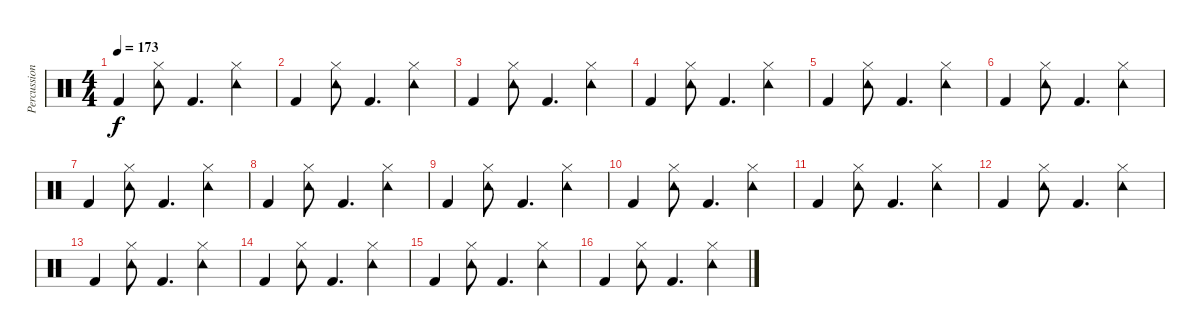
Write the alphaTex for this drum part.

\track ("Percussion" "Percussion") {instrument percussion}
\staff {score}
\articulation defaults
\ts (4 4)
\tempo 173
\clef neutral
\ks c "Kick (hit) 2".4{dy f}
("Tambourine (hit)" "Hi-Hat (closed)").8 "Kick (hit) 2".4{d} ("Tambourine (hit)" "Hi-Hat (closed)").4 |
"Kick (hit) 2".4 ("Tambourine (hit)" "Hi-Hat (closed)").8 "Kick (hit) 2".4{d} ("Tambourine (hit)" "Hi-Hat (closed)").4 |
"Kick (hit) 2".4 ("Tambourine (hit)" "Hi-Hat (closed)").8 "Kick (hit) 2".4{d} ("Tambourine (hit)" "Hi-Hat (closed)").4 |
"Kick (hit) 2".4 ("Tambourine (hit)" "Hi-Hat (closed)").8 "Kick (hit) 2".4{d} ("Tambourine (hit)" "Hi-Hat (closed)").4 |
"Kick (hit) 2".4 ("Tambourine (hit)" "Hi-Hat (closed)").8 "Kick (hit) 2".4{d} ("Tambourine (hit)" "Hi-Hat (closed)").4 |
"Kick (hit) 2".4 ("Tambourine (hit)" "Hi-Hat (closed)").8 "Kick (hit) 2".4{d} ("Tambourine (hit)" "Hi-Hat (closed)").4 |
"Kick (hit) 2".4 ("Tambourine (hit)" "Hi-Hat (closed)").8 "Kick (hit) 2".4{d} ("Tambourine (hit)" "Hi-Hat (closed)").4 |
"Kick (hit) 2".4 ("Tambourine (hit)" "Hi-Hat (closed)").8 "Kick (hit) 2".4{d} ("Tambourine (hit)" "Hi-Hat (closed)").4 |
"Kick (hit) 2".4 ("Tambourine (hit)" "Hi-Hat (closed)").8 "Kick (hit) 2".4{d} ("Tambourine (hit)" "Hi-Hat (closed)").4 |
"Kick (hit) 2".4 ("Tambourine (hit)" "Hi-Hat (closed)").8 "Kick (hit) 2".4{d} ("Tambourine (hit)" "Hi-Hat (closed)").4 |
"Kick (hit) 2".4 ("Tambourine (hit)" "Hi-Hat (closed)").8 "Kick (hit) 2".4{d} ("Tambourine (hit)" "Hi-Hat (closed)").4 |
"Kick (hit) 2".4 ("Tambourine (hit)" "Hi-Hat (closed)").8 "Kick (hit) 2".4{d} ("Tambourine (hit)" "Hi-Hat (closed)").4 |
"Kick (hit) 2".4 ("Tambourine (hit)" "Hi-Hat (closed)").8 "Kick (hit) 2".4{d} ("Tambourine (hit)" "Hi-Hat (closed)").4 |
"Kick (hit) 2".4 ("Tambourine (hit)" "Hi-Hat (closed)").8 "Kick (hit) 2".4{d} ("Tambourine (hit)" "Hi-Hat (closed)").4 |
"Kick (hit) 2".4 ("Tambourine (hit)" "Hi-Hat (closed)").8 "Kick (hit) 2".4{d} ("Tambourine (hit)" "Hi-Hat (closed)").4 |
"Kick (hit) 2".4 ("Tambourine (hit)" "Hi-Hat (closed)").8 "Kick (hit) 2".4{d} ("Tambourine (hit)" "Hi-Hat (closed)").4
